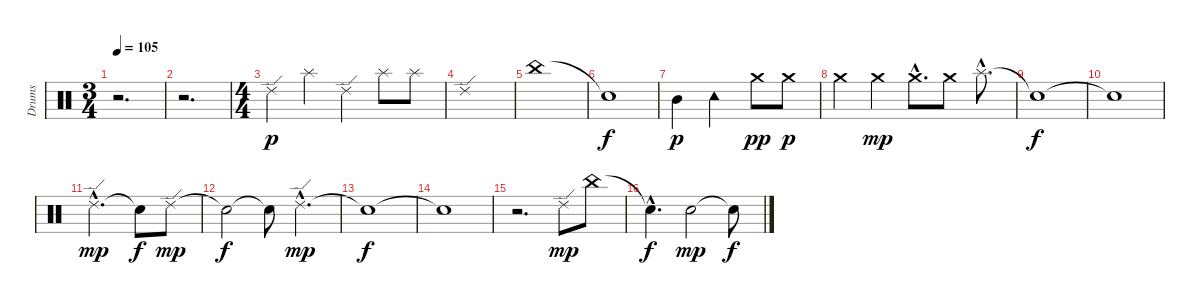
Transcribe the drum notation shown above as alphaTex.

\track ("Drums" "Drums") {instrument percussion}
\staff {score}
\articulation defaults
\ts (3 4)
\tempo 105
\clef neutral
\ks c
r.2{d dy p} |
r.2{d} |
\ts (4 4)
"Ride (edge) 2".4 "Splash (hit)".4 "Ride (edge) 2".4 "Splash (hit)".8 "Splash (hit)".8 |
"Ride (edge) 2".1 |
"China (hit)".1 |
"Snare (hit)"{t}.1{dy f} |
"Mid Tom (hit)".4{dy p} "Tambourine (hit)".2 "Crash medium (hit)".8{dy pp} "Crash medium (hit)".8{dy p} |
"Crash medium (hit)".4 "Crash medium (hit)".4{dy mp} "Crash medium (hit)"{hac}.8{d} "Crash medium (hit)".8 "Splash (hit)"{hac}.8{d} |
"Snare (hit)"{t}.1{dy f} |
"Snare (hit)"{t}.1 |
"Ride (edge) 2"{hac}.2{d dy mp} "Snare (hit)"{t}.8{dy f} "Ride (edge) 2".8{dy mp} |
"Snare (hit)"{t}.2{dy f} "Snare (hit)"{t}.8 "Ride (edge) 2"{hac}.4{d dy mp} |
"Snare (hit)"{t}.1{dy f} |
"Snare (hit)"{t}.1 |
r.2{d} "Ride (edge) 2".8{dy mp} "China (hit)".8 |
"Snare (hit)"{hac t}.4{d dy f} "Electric Snare (hit)".2{dy mp} "Snare (hit)"{t}.8{dy f}
